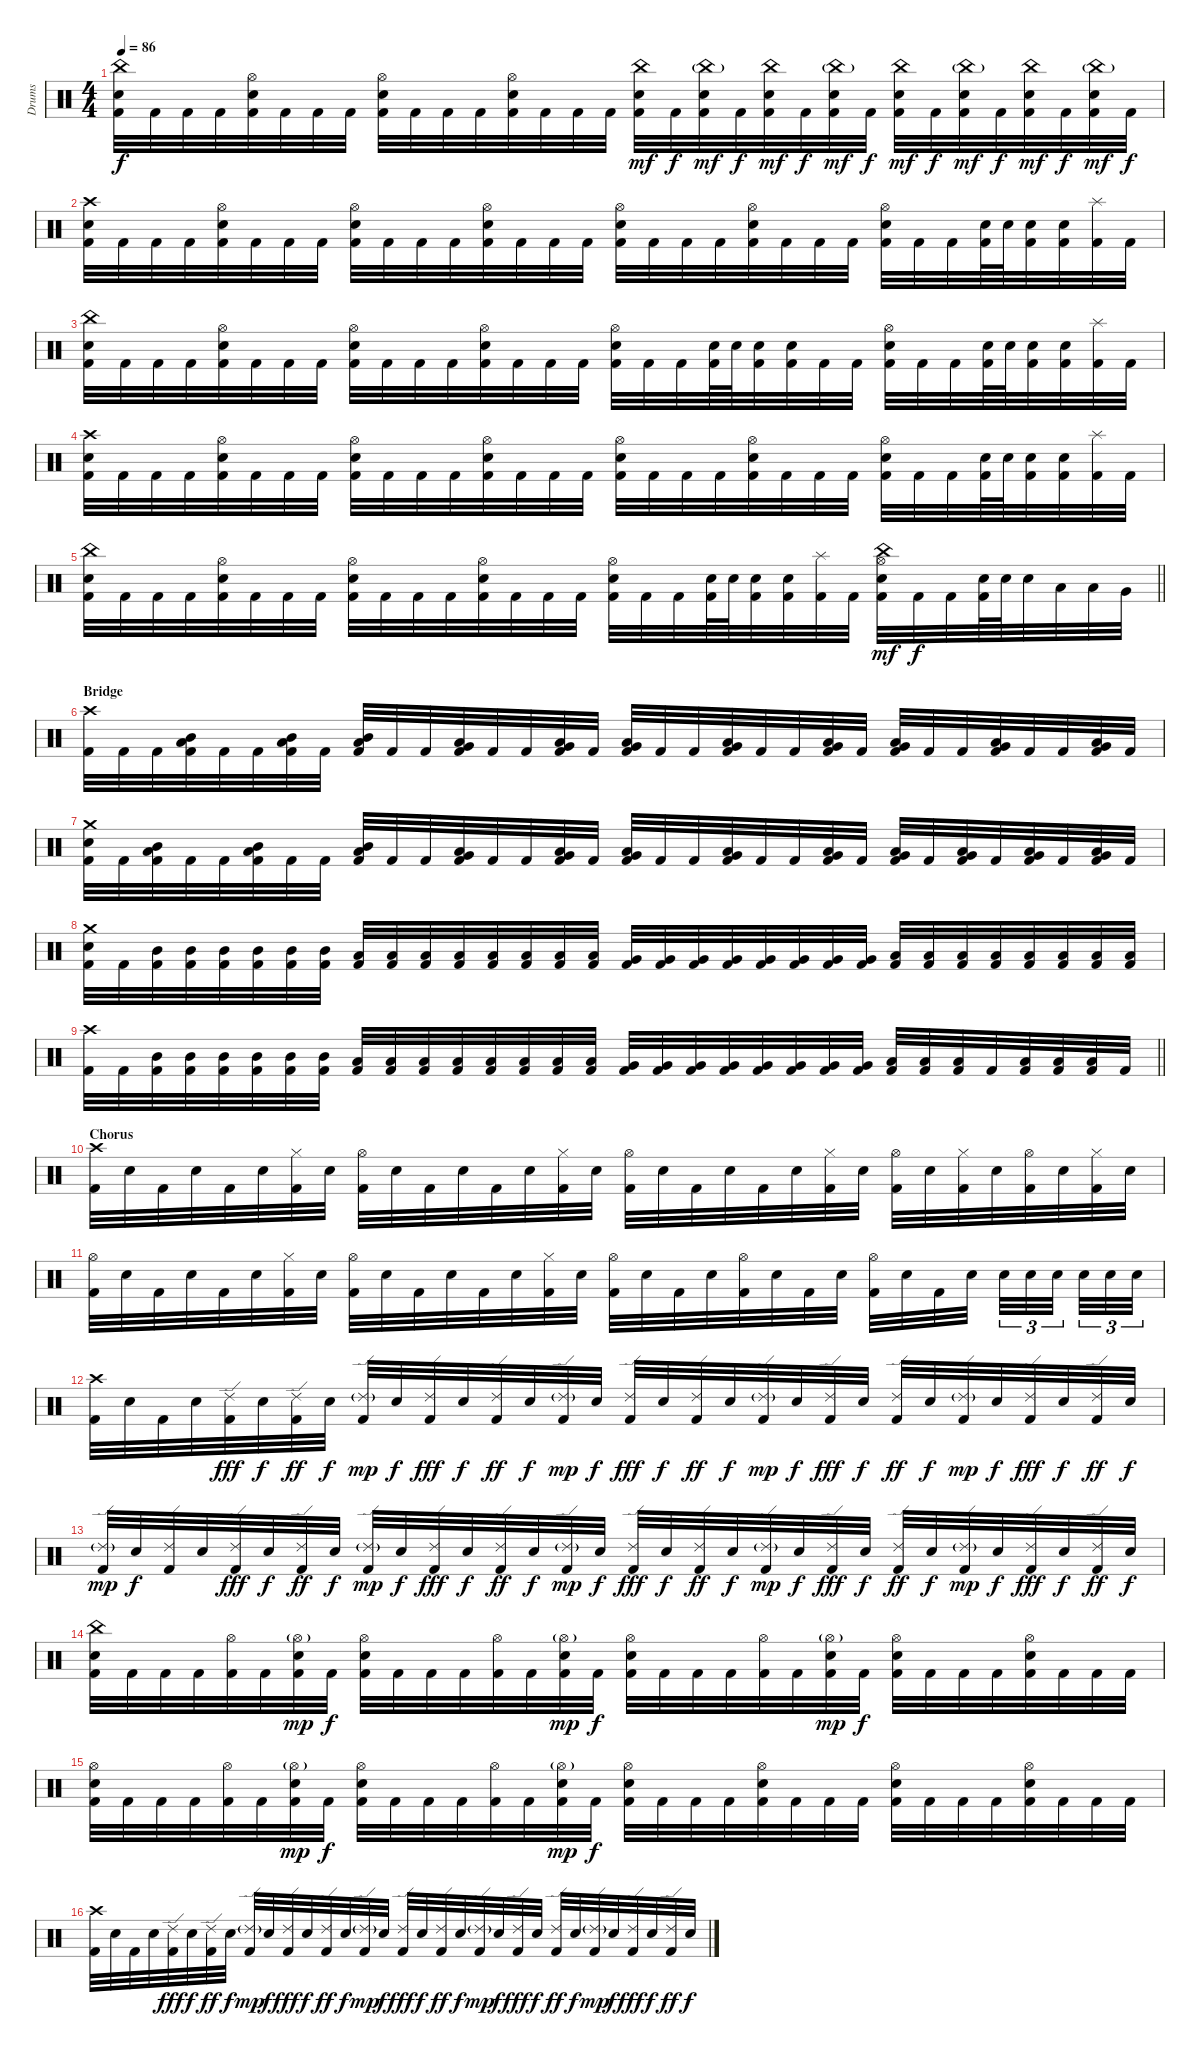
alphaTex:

\track ("Drums" "Drums") {instrument percussion}
\staff {score}
\articulation defaults
\ts (4 4)
\tempo 86
\clef neutral
\ks c
("China (hit)" "Snare (hit) 2" "Kick (hit) 2").32{dy f} "Kick (hit) 2".32 "Kick (hit) 2".32 "Kick (hit) 2".32 ("Hi-Hat (open)" "Snare (hit) 2" "Kick (hit) 2").32 "Kick (hit) 2".32 "Kick (hit) 2".32 "Kick (hit) 2".32 ("Hi-Hat (open)" "Snare (hit) 2" "Kick (hit) 2").32 "Kick (hit) 2".32 "Kick (hit) 2".32 "Kick (hit) 2".32 ("Hi-Hat (open)" "Snare (hit) 2" "Kick (hit) 2").32 "Kick (hit) 2".32 "Kick (hit) 2".32 "Kick (hit) 2".32 ("China (hit)" "Snare (hit) 2" "Kick (hit) 2").32{dy mf} "Kick (hit) 2".32{dy f} ("China (hit)"{g} "Snare (hit) 2" "Kick (hit) 2").32{dy mf} "Kick (hit) 2".32{dy f} ("China (hit)" "Snare (hit) 2" "Kick (hit) 2").32{dy mf} "Kick (hit) 2".32{dy f} ("China (hit)"{g} "Snare (hit) 2" "Kick (hit) 2").32{dy mf} "Kick (hit) 2".32{dy f} ("China (hit)" "Snare (hit) 2" "Kick (hit) 2").32{dy mf} "Kick (hit) 2".32{dy f} ("China (hit)"{g} "Snare (hit) 2" "Kick (hit) 2").32{dy mf} "Kick (hit) 2".32{dy f} ("China (hit)" "Snare (hit) 2" "Kick (hit) 2").32{dy mf} "Kick (hit) 2".32{dy f} ("China (hit)"{g} "Snare (hit) 2" "Kick (hit) 2").32{dy mf} "Kick (hit) 2".32{dy f} |
("Crash high (hit)" "Snare (hit) 2" "Kick (hit) 2").32 "Kick (hit) 2".32 "Kick (hit) 2".32 "Kick (hit) 2".32 ("Hi-Hat (open)" "Snare (hit) 2" "Kick (hit) 2").32 "Kick (hit) 2".32 "Kick (hit) 2".32 "Kick (hit) 2".32 ("Hi-Hat (open)" "Snare (hit) 2" "Kick (hit) 2").32 "Kick (hit) 2".32 "Kick (hit) 2".32 "Kick (hit) 2".32 ("Hi-Hat (open)" "Snare (hit) 2" "Kick (hit) 2").32 "Kick (hit) 2".32 "Kick (hit) 2".32 "Kick (hit) 2".32 ("Hi-Hat (open)" "Snare (hit) 2" "Kick (hit) 2").32 "Kick (hit) 2".32 "Kick (hit) 2".32 "Kick (hit) 2".32 ("Hi-Hat (open)" "Snare (hit) 2" "Kick (hit) 2").32 "Kick (hit) 2".32 "Kick (hit) 2".32 "Kick (hit) 2".32 ("Hi-Hat (open)" "Snare (hit) 2" "Kick (hit) 2").32 "Kick (hit) 2".32 "Kick (hit) 2".32 ("Snare (hit) 2" "Kick (hit) 2").64 "Snare (hit) 2".64 ("Snare (hit) 2" "Kick (hit) 2").32 ("Snare (hit) 2" "Kick (hit) 2").32 ("Splash (hit)" "Kick (hit) 2").32 "Kick (hit) 2".32 |
("China (hit)" "Snare (hit) 2" "Kick (hit) 2").32 "Kick (hit) 2".32 "Kick (hit) 2".32 "Kick (hit) 2".32 ("Hi-Hat (open)" "Snare (hit) 2" "Kick (hit) 2").32 "Kick (hit) 2".32 "Kick (hit) 2".32 "Kick (hit) 2".32 ("Hi-Hat (open)" "Snare (hit) 2" "Kick (hit) 2").32 "Kick (hit) 2".32 "Kick (hit) 2".32 "Kick (hit) 2".32 ("Hi-Hat (open)" "Snare (hit) 2" "Kick (hit) 2").32 "Kick (hit) 2".32 "Kick (hit) 2".32 "Kick (hit) 2".32 ("Hi-Hat (open)" "Snare (hit) 2" "Kick (hit) 2").32 "Kick (hit) 2".32 "Kick (hit) 2".32 ("Snare (hit) 2" "Kick (hit) 2").64 "Snare (hit) 2".64 ("Snare (hit) 2" "Kick (hit) 2").32 ("Snare (hit) 2" "Kick (hit) 2").32 "Kick (hit) 2".32 "Kick (hit) 2".32 ("Hi-Hat (open)" "Snare (hit) 2" "Kick (hit) 2").32 "Kick (hit) 2".32 "Kick (hit) 2".32 ("Snare (hit) 2" "Kick (hit) 2").64 "Snare (hit) 2".64 ("Snare (hit) 2" "Kick (hit) 2").32 ("Snare (hit) 2" "Kick (hit) 2").32 ("Splash (hit)" "Kick (hit) 2").32 "Kick (hit) 2".32 |
("Crash high (hit)" "Snare (hit) 2" "Kick (hit) 2").32 "Kick (hit) 2".32 "Kick (hit) 2".32 "Kick (hit) 2".32 ("Hi-Hat (open)" "Snare (hit) 2" "Kick (hit) 2").32 "Kick (hit) 2".32 "Kick (hit) 2".32 "Kick (hit) 2".32 ("Hi-Hat (open)" "Snare (hit) 2" "Kick (hit) 2").32 "Kick (hit) 2".32 "Kick (hit) 2".32 "Kick (hit) 2".32 ("Hi-Hat (open)" "Snare (hit) 2" "Kick (hit) 2").32 "Kick (hit) 2".32 "Kick (hit) 2".32 "Kick (hit) 2".32 ("Hi-Hat (open)" "Snare (hit) 2" "Kick (hit) 2").32 "Kick (hit) 2".32 "Kick (hit) 2".32 "Kick (hit) 2".32 ("Hi-Hat (open)" "Snare (hit) 2" "Kick (hit) 2").32 "Kick (hit) 2".32 "Kick (hit) 2".32 "Kick (hit) 2".32 ("Hi-Hat (open)" "Snare (hit) 2" "Kick (hit) 2").32 "Kick (hit) 2".32 "Kick (hit) 2".32 ("Snare (hit) 2" "Kick (hit) 2").64 "Snare (hit) 2".64 ("Snare (hit) 2" "Kick (hit) 2").32 ("Snare (hit) 2" "Kick (hit) 2").32 ("Splash (hit)" "Kick (hit) 2").32 "Kick (hit) 2".32 |
\barLineRight lightlight
("China (hit)" "Snare (hit) 2" "Kick (hit) 2").32 "Kick (hit) 2".32 "Kick (hit) 2".32 "Kick (hit) 2".32 ("Hi-Hat (open)" "Snare (hit) 2" "Kick (hit) 2").32 "Kick (hit) 2".32 "Kick (hit) 2".32 "Kick (hit) 2".32 ("Hi-Hat (open)" "Snare (hit) 2" "Kick (hit) 2").32 "Kick (hit) 2".32 "Kick (hit) 2".32 "Kick (hit) 2".32 ("Hi-Hat (open)" "Snare (hit) 2" "Kick (hit) 2").32 "Kick (hit) 2".32 "Kick (hit) 2".32 "Kick (hit) 2".32 ("Hi-Hat (open)" "Snare (hit) 2" "Kick (hit) 2").32 "Kick (hit) 2".32 "Kick (hit) 2".32 ("Snare (hit) 2" "Kick (hit) 2").64 "Snare (hit) 2".64 ("Snare (hit) 2" "Kick (hit) 2").32 ("Snare (hit) 2" "Kick (hit) 2").32 ("Splash (hit)" "Kick (hit) 2").32 "Kick (hit) 2".32 ("China (hit)" "Hi-Hat (open)" "Snare (hit) 2" "Kick (hit) 2").32{dy mf} "Kick (hit) 2".32{dy f} "Kick (hit) 2".32 ("Snare (hit) 2" "Kick (hit) 2").64 "Snare (hit) 2".64 "Snare (hit) 2".32 "Low Tom (hit)".32 "Low Tom (hit)".32 "Very Low Tom (hit)".32 |
\section ("" "Bridge")
("Crash high (hit)" "Kick (hit) 2").32 "Kick (hit) 2".32 "Kick (hit) 2".32 ("Mid Tom (hit)" "Low Tom (hit)" "Kick (hit) 2").32 "Kick (hit) 2".32 "Kick (hit) 2".32 ("Mid Tom (hit)" "Low Tom (hit)" "Kick (hit) 2").32 "Kick (hit) 2".32 ("Mid Tom (hit)" "Low Tom (hit)" "Kick (hit) 2").32 "Kick (hit) 2".32 "Kick (hit) 2".32 ("Low Tom (hit)" "Very Low Tom (hit)" "Kick (hit) 2").32 "Kick (hit) 2".32 "Kick (hit) 2".32 ("Low Tom (hit)" "Very Low Tom (hit)" "Kick (hit) 2").32 "Kick (hit) 2".32 ("Low Tom (hit)" "Very Low Tom (hit)" "Kick (hit) 2").32 "Kick (hit) 2".32 "Kick (hit) 2".32 ("Very Low Tom (hit)" "Low Floor Tom (hit)" "Kick (hit) 2").32 "Kick (hit) 2".32 "Kick (hit) 2".32 ("Very Low Tom (hit)" "Low Floor Tom (hit)" "Kick (hit) 2").32 "Kick (hit) 2".32 ("Very Low Tom (hit)" "Low Floor Tom (hit)" "Kick (hit) 2").32 "Kick (hit) 2".32 "Kick (hit) 2".32 ("Very Low Tom (hit)" "Low Floor Tom (hit)" "Kick (hit) 2").32 "Kick (hit) 2".32 "Kick (hit) 2".32 ("Very Low Tom (hit)" "Low Floor Tom (hit)" "Kick (hit) 2").32 "Kick (hit) 2".32 |
("Crash medium (hit)" "Snare (hit) 2" "Kick (hit) 2").32 "Kick (hit) 2".32 ("Mid Tom (hit)" "Low Tom (hit)" "Kick (hit) 2").32 "Kick (hit) 2".32 "Kick (hit) 2".32 ("Mid Tom (hit)" "Low Tom (hit)" "Kick (hit) 2").32 "Kick (hit) 2".32 "Kick (hit) 2".32 ("Mid Tom (hit)" "Low Tom (hit)" "Kick (hit) 2").32 "Kick (hit) 2".32 "Kick (hit) 2".32 ("Low Tom (hit)" "Very Low Tom (hit)" "Kick (hit) 2").32 "Kick (hit) 2".32 "Kick (hit) 2".32 ("Low Tom (hit)" "Very Low Tom (hit)" "Kick (hit) 2").32 "Kick (hit) 2".32 ("Low Tom (hit)" "Very Low Tom (hit)" "Kick (hit) 2").32 "Kick (hit) 2".32 "Kick (hit) 2".32 ("Very Low Tom (hit)" "Low Floor Tom (hit)" "Kick (hit) 2").32 "Kick (hit) 2".32 "Kick (hit) 2".32 ("Very Low Tom (hit)" "Low Floor Tom (hit)" "Kick (hit) 2").32 "Kick (hit) 2".32 ("Very Low Tom (hit)" "Low Floor Tom (hit)" "Kick (hit) 2").32 "Kick (hit) 2".32 ("Very Low Tom (hit)" "Low Floor Tom (hit)" "Kick (hit) 2").32 "Kick (hit) 2".32 ("Very Low Tom (hit)" "Low Floor Tom (hit)" "Kick (hit) 2").32 "Kick (hit) 2".32 ("Very Low Tom (hit)" "Low Floor Tom (hit)" "Kick (hit) 2").32 "Kick (hit) 2".32 |
("Crash medium (hit)" "Snare (hit) 2" "Kick (hit) 2").32 "Kick (hit) 2".32 ("Mid Tom (hit)" "Kick (hit) 2").32 ("Mid Tom (hit)" "Kick (hit) 2").32 ("Mid Tom (hit)" "Kick (hit) 2").32 ("Mid Tom (hit)" "Kick (hit) 2").32 ("Mid Tom (hit)" "Kick (hit) 2").32 ("Mid Tom (hit)" "Kick (hit) 2").32 ("Low Tom (hit)" "Kick (hit) 2").32 ("Low Tom (hit)" "Kick (hit) 2").32 ("Low Tom (hit)" "Kick (hit) 2").32 ("Low Tom (hit)" "Kick (hit) 2").32 ("Low Tom (hit)" "Kick (hit) 2").32 ("Low Tom (hit)" "Kick (hit) 2").32 ("Low Tom (hit)" "Kick (hit) 2").32 ("Low Tom (hit)" "Kick (hit) 2").32 ("Very Low Tom (hit)" "Kick (hit) 2").32 ("Very Low Tom (hit)" "Kick (hit) 2").32 ("Very Low Tom (hit)" "Kick (hit) 2").32 ("Very Low Tom (hit)" "Kick (hit) 2").32 ("Very Low Tom (hit)" "Kick (hit) 2").32 ("Very Low Tom (hit)" "Kick (hit) 2").32 ("Very Low Tom (hit)" "Kick (hit) 2").32 ("Very Low Tom (hit)" "Kick (hit) 2").32 ("Low Floor Tom (hit)" "Kick (hit) 2").32 ("Low Floor Tom (hit)" "Kick (hit) 2").32 ("Low Floor Tom (hit)" "Kick (hit) 2").32 ("Low Floor Tom (hit)" "Kick (hit) 2").32 ("Low Floor Tom (hit)" "Kick (hit) 2").32 ("Low Floor Tom (hit)" "Kick (hit) 2").32 ("Low Floor Tom (hit)" "Kick (hit) 2").32 ("Low Floor Tom (hit)" "Kick (hit) 2").32 |
\barLineRight lightlight
("Crash high (hit)" "Kick (hit) 2").32 "Kick (hit) 2".32 ("Mid Tom (hit)" "Kick (hit) 2").32 ("Mid Tom (hit)" "Kick (hit) 2").32 ("Mid Tom (hit)" "Kick (hit) 2").32 ("Mid Tom (hit)" "Kick (hit) 2").32 ("Mid Tom (hit)" "Kick (hit) 2").32 ("Mid Tom (hit)" "Kick (hit) 2").32 ("Low Tom (hit)" "Kick (hit) 2").32 ("Low Tom (hit)" "Kick (hit) 2").32 ("Low Tom (hit)" "Kick (hit) 2").32 ("Low Tom (hit)" "Kick (hit) 2").32 ("Low Tom (hit)" "Kick (hit) 2").32 ("Low Tom (hit)" "Kick (hit) 2").32 ("Low Tom (hit)" "Kick (hit) 2").32 ("Low Tom (hit)" "Kick (hit) 2").32 ("Very Low Tom (hit)" "Kick (hit) 2").32 ("Very Low Tom (hit)" "Kick (hit) 2").32 ("Very Low Tom (hit)" "Kick (hit) 2").32 ("Very Low Tom (hit)" "Kick (hit) 2").32 ("Very Low Tom (hit)" "Kick (hit) 2").32 ("Very Low Tom (hit)" "Kick (hit) 2").32 ("Very Low Tom (hit)" "Kick (hit) 2").32 ("Very Low Tom (hit)" "Kick (hit) 2").32 ("Low Floor Tom (hit)" "Kick (hit) 2").32 ("Low Floor Tom (hit)" "Kick (hit) 2").32 ("Low Floor Tom (hit)" "Kick (hit) 2").32 "Kick (hit) 2".32 ("Low Floor Tom (hit)" "Kick (hit) 2").32 ("Low Floor Tom (hit)" "Kick (hit) 2").32 ("Low Floor Tom (hit)" "Kick (hit) 2").32 "Kick (hit) 2".32 |
\section ("" "Chorus")
("Crash high (hit)" "Kick (hit) 2").32 "Snare (hit) 2".32 "Kick (hit) 2".32 "Snare (hit) 2".32 "Kick (hit) 2".32 "Snare (hit) 2".32 ("Hi-Hat (closed)" "Kick (hit) 2").32 "Snare (hit) 2".32 ("Hi-Hat (open)" "Kick (hit) 2").32 "Snare (hit) 2".32 "Kick (hit) 2".32 "Snare (hit) 2".32 "Kick (hit) 2".32 "Snare (hit) 2".32 ("Hi-Hat (closed)" "Kick (hit) 2").32 "Snare (hit) 2".32 ("Hi-Hat (open)" "Kick (hit) 2").32 "Snare (hit) 2".32 "Kick (hit) 2".32 "Snare (hit) 2".32 "Kick (hit) 2".32 "Snare (hit) 2".32 ("Hi-Hat (closed)" "Kick (hit) 2").32 "Snare (hit) 2".32 ("Hi-Hat (open)" "Kick (hit) 2").32 "Snare (hit) 2".32 ("Hi-Hat (closed)" "Kick (hit) 2").32 "Snare (hit) 2".32 ("Hi-Hat (open)" "Kick (hit) 2").32 "Snare (hit) 2".32 ("Hi-Hat (closed)" "Kick (hit) 2").32 "Snare (hit) 2".32 |
("Hi-Hat (open)" "Kick (hit) 2").32 "Snare (hit) 2".32 "Kick (hit) 2".32 "Snare (hit) 2".32 "Kick (hit) 2".32 "Snare (hit) 2".32 ("Hi-Hat (closed)" "Kick (hit) 2").32 "Snare (hit) 2".32 ("Hi-Hat (open)" "Kick (hit) 2").32 "Snare (hit) 2".32 "Kick (hit) 2".32 "Snare (hit) 2".32 "Kick (hit) 2".32 "Snare (hit) 2".32 ("Hi-Hat (closed)" "Kick (hit) 2").32 "Snare (hit) 2".32 ("Hi-Hat (open)" "Kick (hit) 2").32 "Snare (hit) 2".32 "Kick (hit) 2".32 "Snare (hit) 2".32 ("Hi-Hat (open)" "Kick (hit) 2").32 "Snare (hit) 2".32 "Kick (hit) 2".32 "Snare (hit) 2".32 ("Hi-Hat (open)" "Kick (hit) 2").32 "Snare (hit) 2".32 "Kick (hit) 2".32 "Snare (hit) 2".32{beam splitsecondary} "Snare (hit) 2".32{tu (3 2)} "Snare (hit) 2".32{tu (3 2)} "Snare (hit) 2".32{tu (3 2) beam splitsecondary} "Snare (hit) 2".32{tu (3 2)} "Snare (hit) 2".32{tu (3 2)} "Snare (hit) 2".32{tu (3 2)} |
("Crash high (hit)" "Kick (hit) 2").32 "Snare (hit) 2".32 "Kick (hit) 2".32 "Snare (hit) 2".32 ("Ride (edge) 2" "Kick (hit) 2").32{dy fff} "Snare (hit) 2".32{dy f} ("Ride (edge) 2" "Kick (hit) 2").32{dy ff} "Snare (hit) 2".32{dy f} ("Ride (edge) 2"{g} "Kick (hit) 2").32{dy mp} "Snare (hit) 2".32{dy f} ("Ride (edge) 2" "Kick (hit) 2").32{dy fff} "Snare (hit) 2".32{dy f} ("Ride (edge) 2" "Kick (hit) 2").32{dy ff} "Snare (hit) 2".32{dy f} ("Ride (edge) 2"{g} "Kick (hit) 2").32{dy mp} "Snare (hit) 2".32{dy f} ("Ride (edge) 2" "Kick (hit) 2").32{dy fff} "Snare (hit) 2".32{dy f} ("Ride (edge) 2" "Kick (hit) 2").32{dy ff} "Snare (hit) 2".32{dy f} ("Ride (edge) 2"{g} "Kick (hit) 2").32{dy mp} "Snare (hit) 2".32{dy f} ("Ride (edge) 2" "Kick (hit) 2").32{dy fff} "Snare (hit) 2".32{dy f} ("Ride (edge) 2" "Kick (hit) 2").32{dy ff} "Snare (hit) 2".32{dy f} ("Ride (edge) 2"{g} "Kick (hit) 2").32{dy mp} "Snare (hit) 2".32{dy f} ("Ride (edge) 2" "Kick (hit) 2").32{dy fff} "Snare (hit) 2".32{dy f} ("Ride (edge) 2" "Kick (hit) 2").32{dy ff} "Snare (hit) 2".32{dy f} |
("Ride (edge) 2"{g} "Kick (hit) 2").32{dy mp} "Snare (hit) 2".32{dy f} ("Ride (edge) 2" "Kick (hit) 2").32 "Snare (hit) 2".32 ("Ride (edge) 2" "Kick (hit) 2").32{dy fff} "Snare (hit) 2".32{dy f} ("Ride (edge) 2" "Kick (hit) 2").32{dy ff} "Snare (hit) 2".32{dy f} ("Ride (edge) 2"{g} "Kick (hit) 2").32{dy mp} "Snare (hit) 2".32{dy f} ("Ride (edge) 2" "Kick (hit) 2").32{dy fff} "Snare (hit) 2".32{dy f} ("Ride (edge) 2" "Kick (hit) 2").32{dy ff} "Snare (hit) 2".32{dy f} ("Ride (edge) 2"{g} "Kick (hit) 2").32{dy mp} "Snare (hit) 2".32{dy f} ("Ride (edge) 2" "Kick (hit) 2").32{dy fff} "Snare (hit) 2".32{dy f} ("Ride (edge) 2" "Kick (hit) 2").32{dy ff} "Snare (hit) 2".32{dy f} ("Ride (edge) 2"{g} "Kick (hit) 2").32{dy mp} "Snare (hit) 2".32{dy f} ("Ride (edge) 2" "Kick (hit) 2").32{dy fff} "Snare (hit) 2".32{dy f} ("Ride (edge) 2" "Kick (hit) 2").32{dy ff} "Snare (hit) 2".32{dy f} ("Ride (edge) 2"{g} "Kick (hit) 2").32{dy mp} "Snare (hit) 2".32{dy f} ("Ride (edge) 2" "Kick (hit) 2").32{dy fff} "Snare (hit) 2".32{dy f} ("Ride (edge) 2" "Kick (hit) 2").32{dy ff} "Snare (hit) 2".32{dy f} |
("China (hit)" "Snare (hit) 2" "Kick (hit) 2").32 "Kick (hit) 2".32 "Kick (hit) 2".32 "Kick (hit) 2".32 ("Hi-Hat (open)" "Kick (hit) 2").32 "Kick (hit) 2".32 ("Hi-Hat (open)"{g} "Snare (hit) 2" "Kick (hit) 2").32{dy mp} "Kick (hit) 2".32{dy f} ("Hi-Hat (open)" "Snare (hit) 2" "Kick (hit) 2").32 "Kick (hit) 2".32 "Kick (hit) 2".32 "Kick (hit) 2".32 ("Hi-Hat (open)" "Kick (hit) 2").32 "Kick (hit) 2".32 ("Hi-Hat (open)"{g} "Snare (hit) 2" "Kick (hit) 2").32{dy mp} "Kick (hit) 2".32{dy f} ("Hi-Hat (open)" "Snare (hit) 2" "Kick (hit) 2").32 "Kick (hit) 2".32 "Kick (hit) 2".32 "Kick (hit) 2".32 ("Hi-Hat (open)" "Kick (hit) 2").32 "Kick (hit) 2".32 ("Hi-Hat (open)"{g} "Snare (hit) 2" "Kick (hit) 2").32{dy mp} "Kick (hit) 2".32{dy f} ("Hi-Hat (open)" "Snare (hit) 2" "Kick (hit) 2").32 "Kick (hit) 2".32 "Kick (hit) 2".32 "Kick (hit) 2".32 ("Hi-Hat (open)" "Snare (hit) 2" "Kick (hit) 2").32 "Kick (hit) 2".32 "Kick (hit) 2".32 "Kick (hit) 2".32 |
("Hi-Hat (open)" "Snare (hit) 2" "Kick (hit) 2").32 "Kick (hit) 2".32 "Kick (hit) 2".32 "Kick (hit) 2".32 ("Hi-Hat (open)" "Kick (hit) 2").32 "Kick (hit) 2".32 ("Hi-Hat (open)"{g} "Snare (hit) 2" "Kick (hit) 2").32{dy mp} "Kick (hit) 2".32{dy f} ("Hi-Hat (open)" "Snare (hit) 2" "Kick (hit) 2").32 "Kick (hit) 2".32 "Kick (hit) 2".32 "Kick (hit) 2".32 ("Hi-Hat (open)" "Kick (hit) 2").32 "Kick (hit) 2".32 ("Hi-Hat (open)"{g} "Snare (hit) 2" "Kick (hit) 2").32{dy mp} "Kick (hit) 2".32{dy f} ("Hi-Hat (open)" "Snare (hit) 2" "Kick (hit) 2").32 "Kick (hit) 2".32 "Kick (hit) 2".32 "Kick (hit) 2".32 ("Hi-Hat (open)" "Snare (hit) 2" "Kick (hit) 2").32 "Kick (hit) 2".32 "Kick (hit) 2".32 "Kick (hit) 2".32 ("Hi-Hat (open)" "Snare (hit) 2" "Kick (hit) 2").32 "Kick (hit) 2".32 "Kick (hit) 2".32 "Kick (hit) 2".32 ("Hi-Hat (open)" "Snare (hit) 2" "Kick (hit) 2").32 "Kick (hit) 2".32 "Kick (hit) 2".32 "Kick (hit) 2".32 |
("Crash high (hit)" "Kick (hit) 2").32 "Snare (hit) 2".32 "Kick (hit) 2".32 "Snare (hit) 2".32 ("Ride (edge) 2" "Kick (hit) 2").32{dy fff} "Snare (hit) 2".32{dy f} ("Ride (edge) 2" "Kick (hit) 2").32{dy ff} "Snare (hit) 2".32{dy f} ("Ride (edge) 2"{g} "Kick (hit) 2").32{dy mp} "Snare (hit) 2".32{dy f} ("Ride (edge) 2" "Kick (hit) 2").32{dy fff} "Snare (hit) 2".32{dy f} ("Ride (edge) 2" "Kick (hit) 2").32{dy ff} "Snare (hit) 2".32{dy f} ("Ride (edge) 2"{g} "Kick (hit) 2").32{dy mp} "Snare (hit) 2".32{dy f} ("Ride (edge) 2" "Kick (hit) 2").32{dy fff} "Snare (hit) 2".32{dy f} ("Ride (edge) 2" "Kick (hit) 2").32{dy ff} "Snare (hit) 2".32{dy f} ("Ride (edge) 2"{g} "Kick (hit) 2").32{dy mp} "Snare (hit) 2".32{dy f} ("Ride (edge) 2" "Kick (hit) 2").32{dy fff} "Snare (hit) 2".32{dy f} ("Ride (edge) 2" "Kick (hit) 2").32{dy ff} "Snare (hit) 2".32{dy f} ("Ride (edge) 2"{g} "Kick (hit) 2").32{dy mp} "Snare (hit) 2".32{dy f} ("Ride (edge) 2" "Kick (hit) 2").32{dy fff} "Snare (hit) 2".32{dy f} ("Ride (edge) 2" "Kick (hit) 2").32{dy ff} "Snare (hit) 2".32{dy f}
